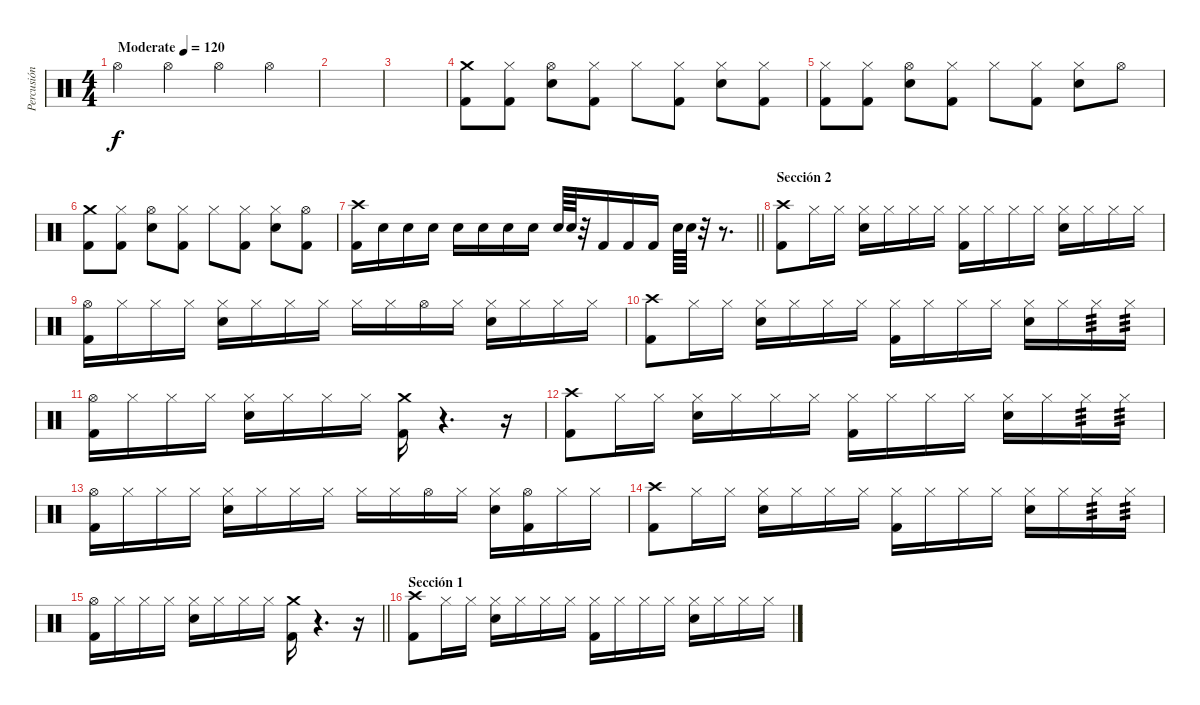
\track ("Percusión" "Percusión") {instrument percussion}
\staff {score}
\articulation defaults
\ts (4 4)
\tempo (120 "Moderate")
\clef neutral
\ks c "Hi-Hat (open)".4{dy f} "Hi-Hat (open)".4 "Hi-Hat (open)".4 "Hi-Hat (open)".4
|
|
|
("Crash medium (hit)" "Kick (hit) 2").8 ("Hi-Hat (closed)" "Kick (hit) 2").8 ("Hi-Hat (open)" "Electric Snare (hit)").8 ("Hi-Hat (closed)" "Kick (hit) 2").8 "Hi-Hat (closed)".8 ("Hi-Hat (closed)" "Kick (hit) 2").8 ("Hi-Hat (closed)" "Electric Snare (hit)").8 ("Hi-Hat (closed)" "Kick (hit) 2").8 |
("Hi-Hat (closed)" "Kick (hit) 2").8 ("Hi-Hat (closed)" "Kick (hit) 2").8 ("Hi-Hat (open)" "Electric Snare (hit)").8 ("Hi-Hat (closed)" "Kick (hit) 2").8 "Hi-Hat (closed)".8 ("Hi-Hat (closed)" "Kick (hit) 2").8 ("Hi-Hat (closed)" "Electric Snare (hit)").8 "Hi-Hat (open)".8 |
("Crash medium (hit)" "Kick (hit) 2").8 ("Hi-Hat (closed)" "Kick (hit) 2").8 ("Hi-Hat (open)" "Electric Snare (hit)").8 ("Hi-Hat (closed)" "Kick (hit) 2").8 "Hi-Hat (closed)".8 ("Hi-Hat (closed)" "Kick (hit) 2").8 ("Hi-Hat (closed)" "Electric Snare (hit)").8 ("Hi-Hat (open)" "Kick (hit) 2").8 |
\barLineRight lightlight
("Crash high (hit)" "Kick (hit) 2").16 "Electric Snare (hit)".16{volume 5} "Electric Snare (hit)".16{volume 16} "Electric Snare (hit)".16 "Electric Snare (hit)".16 "Electric Snare (hit)".16 "Electric Snare (hit)".16 "Electric Snare (hit)".16 "Electric Snare (hit)".64 "Electric Snare (hit)".64 r.32 "Kick (hit) 2".16 "Kick (hit) 2".16 "Kick (hit) 2".16 "Electric Snare (hit)".64 "Electric Snare (hit)".64 r.32 r.8{d} |
\section ("" "Sección 2")
("Crash high (hit)" "Kick (hit) 2").8 "Hi-Hat (closed)".16 "Hi-Hat (closed)".16 ("Hi-Hat (closed)" "Electric Snare (hit)").16 "Hi-Hat (closed)".16 "Hi-Hat (closed)".16 "Hi-Hat (closed)".16 ("Hi-Hat (closed)" "Kick (hit) 2").16 "Hi-Hat (closed)".16 "Hi-Hat (closed)".16 "Hi-Hat (closed)".16 ("Hi-Hat (closed)" "Electric Snare (hit)").16 "Hi-Hat (closed)".16 "Hi-Hat (closed)".16 "Hi-Hat (closed)".16 |
("Hi-Hat (open)" "Kick (hit) 2").16 "Hi-Hat (closed)".16 "Hi-Hat (closed)".16 "Hi-Hat (closed)".16 ("Hi-Hat (closed)" "Electric Snare (hit)").16 "Hi-Hat (closed)".16 "Hi-Hat (closed)".16 "Hi-Hat (closed)".16 "Hi-Hat (closed)".16 "Hi-Hat (closed)".16 "Hi-Hat (open)".16 "Hi-Hat (closed)".16 ("Hi-Hat (closed)" "Electric Snare (hit)").16 "Hi-Hat (closed)".16 "Hi-Hat (closed)".16 "Hi-Hat (closed)".16 |
("Crash high (hit)" "Kick (hit) 2").8 "Hi-Hat (closed)".16 "Hi-Hat (closed)".16 ("Hi-Hat (closed)" "Electric Snare (hit)").16 "Hi-Hat (closed)".16 "Hi-Hat (closed)".16 "Hi-Hat (closed)".16 ("Hi-Hat (closed)" "Kick (hit) 2").16 "Hi-Hat (closed)".16 "Hi-Hat (closed)".16 "Hi-Hat (closed)".16 ("Hi-Hat (closed)" "Electric Snare (hit)").16 "Hi-Hat (closed)".16 "Hi-Hat (closed)".16{tp 3} "Hi-Hat (closed)".16{tp 3} |
("Hi-Hat (open)" "Kick (hit) 2").16 "Hi-Hat (closed)".16 "Hi-Hat (closed)".16 "Hi-Hat (closed)".16 ("Hi-Hat (closed)" "Electric Snare (hit)").16 "Hi-Hat (closed)".16 "Hi-Hat (closed)".16 "Hi-Hat (closed)".16 ("Crash medium (hit)" "Kick (hit) 2").16 r.4{d} r.16 |
("Crash high (hit)" "Kick (hit) 2").8 "Hi-Hat (closed)".16 "Hi-Hat (closed)".16 ("Hi-Hat (closed)" "Electric Snare (hit)").16 "Hi-Hat (closed)".16 "Hi-Hat (closed)".16 "Hi-Hat (closed)".16 ("Hi-Hat (closed)" "Kick (hit) 2").16 "Hi-Hat (closed)".16 "Hi-Hat (closed)".16 "Hi-Hat (closed)".16 ("Hi-Hat (closed)" "Electric Snare (hit)").16 "Hi-Hat (closed)".16 "Hi-Hat (closed)".16{tp 3} "Hi-Hat (closed)".16{tp 3} |
("Hi-Hat (open)" "Kick (hit) 2").16 "Hi-Hat (closed)".16 "Hi-Hat (closed)".16 "Hi-Hat (closed)".16 ("Hi-Hat (closed)" "Electric Snare (hit)").16 "Hi-Hat (closed)".16 "Hi-Hat (closed)".16 "Hi-Hat (closed)".16 "Hi-Hat (closed)".16 "Hi-Hat (closed)".16 "Hi-Hat (open)".16 "Hi-Hat (closed)".16 ("Hi-Hat (closed)" "Electric Snare (hit)").16 ("Hi-Hat (open)" "Kick (hit) 2").16 "Hi-Hat (closed)".16 "Hi-Hat (closed)".16 |
("Crash high (hit)" "Kick (hit) 2").8 "Hi-Hat (closed)".16 "Hi-Hat (closed)".16 ("Hi-Hat (closed)" "Electric Snare (hit)").16 "Hi-Hat (closed)".16 "Hi-Hat (closed)".16 "Hi-Hat (closed)".16 ("Hi-Hat (closed)" "Kick (hit) 2").16 "Hi-Hat (closed)".16 "Hi-Hat (closed)".16 "Hi-Hat (closed)".16 ("Hi-Hat (closed)" "Electric Snare (hit)").16 "Hi-Hat (closed)".16 "Hi-Hat (closed)".16{tp 3} "Hi-Hat (closed)".16{tp 3} |
\barLineRight lightlight
("Hi-Hat (open)" "Kick (hit) 2").16 "Hi-Hat (closed)".16 "Hi-Hat (closed)".16 "Hi-Hat (closed)".16 ("Hi-Hat (closed)" "Electric Snare (hit)").16 "Hi-Hat (closed)".16 "Hi-Hat (closed)".16 "Hi-Hat (closed)".16 ("Crash medium (hit)" "Kick (hit) 2").16 r.4{d} r.16 |
\section ("" "Sección 1")
("Crash high (hit)" "Kick (hit) 2").8 "Hi-Hat (closed)".16 "Hi-Hat (closed)".16 ("Hi-Hat (closed)" "Electric Snare (hit)").16 "Hi-Hat (closed)".16 "Hi-Hat (closed)".16 "Hi-Hat (closed)".16 ("Hi-Hat (closed)" "Kick (hit) 2").16 "Hi-Hat (closed)".16 "Hi-Hat (closed)".16 "Hi-Hat (closed)".16 ("Hi-Hat (closed)" "Electric Snare (hit)").16 "Hi-Hat (closed)".16 "Hi-Hat (closed)".16 "Hi-Hat (closed)".16
